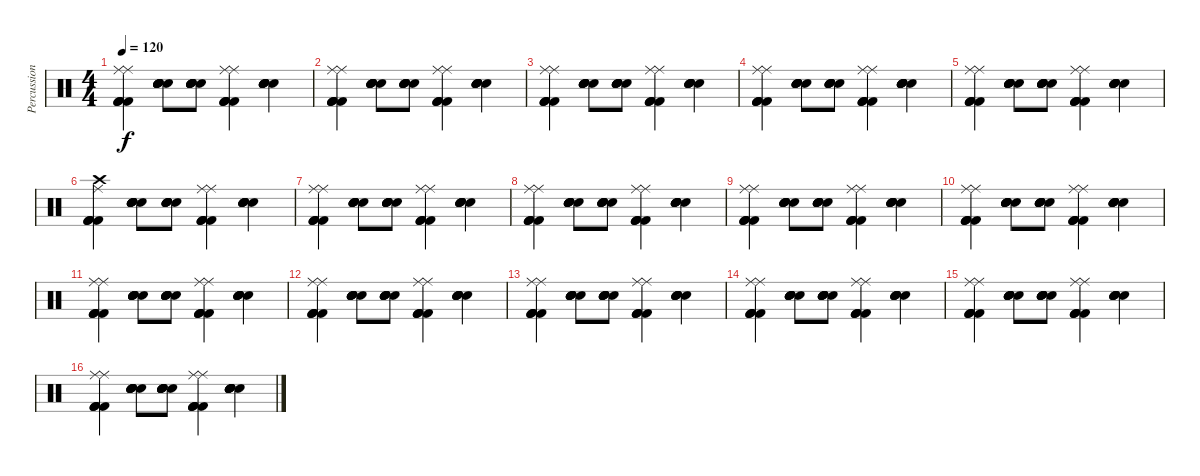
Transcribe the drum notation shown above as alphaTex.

\track ("Percussion" "Percussion") {instrument percussion}
\staff {score}
\articulation defaults
\ts (4 4)
\tempo 120
\clef neutral
\ks c
("Ride (middle)" "Kick (hit) 2" "Kick (hit) 2" "Kick (hit) 2" "Kick (hit) 2" "Ride (middle)").4{dy f} ("Electric Snare (hit)" "Electric Snare (hit)" "Electric Snare (hit)" "Electric Snare (hit)" "Electric Snare (hit)" "Electric Snare (hit)").8 ("Electric Snare (hit)" "Electric Snare (hit)" "Electric Snare (hit)" "Electric Snare (hit)" "Electric Snare (hit)" "Electric Snare (hit)").8 ("Ride (middle)" "Kick (hit) 2" "Kick (hit) 2" "Kick (hit) 2" "Kick (hit) 2" "Ride (middle)").4 ("Electric Snare (hit)" "Electric Snare (hit)" "Electric Snare (hit)" "Electric Snare (hit)" "Electric Snare (hit)" "Electric Snare (hit)").4 |
("Ride (middle)" "Kick (hit) 2" "Kick (hit) 2" "Kick (hit) 2" "Kick (hit) 2" "Ride (middle)").4 ("Electric Snare (hit)" "Electric Snare (hit)" "Electric Snare (hit)" "Electric Snare (hit)" "Electric Snare (hit)" "Electric Snare (hit)").8 ("Electric Snare (hit)" "Electric Snare (hit)" "Electric Snare (hit)" "Electric Snare (hit)" "Electric Snare (hit)" "Electric Snare (hit)").8 ("Ride (middle)" "Kick (hit) 2" "Kick (hit) 2" "Kick (hit) 2" "Kick (hit) 2" "Ride (middle)").4 ("Electric Snare (hit)" "Electric Snare (hit)" "Electric Snare (hit)" "Electric Snare (hit)" "Electric Snare (hit)" "Electric Snare (hit)").4 |
("Ride (middle)" "Kick (hit) 2" "Kick (hit) 2" "Kick (hit) 2" "Kick (hit) 2" "Ride (middle)").4 ("Electric Snare (hit)" "Electric Snare (hit)" "Electric Snare (hit)" "Electric Snare (hit)" "Electric Snare (hit)" "Electric Snare (hit)").8 ("Electric Snare (hit)" "Electric Snare (hit)" "Electric Snare (hit)" "Electric Snare (hit)" "Electric Snare (hit)" "Electric Snare (hit)").8 ("Ride (middle)" "Kick (hit) 2" "Kick (hit) 2" "Kick (hit) 2" "Kick (hit) 2" "Ride (middle)").4 ("Electric Snare (hit)" "Electric Snare (hit)" "Electric Snare (hit)" "Electric Snare (hit)" "Electric Snare (hit)" "Electric Snare (hit)").4 |
("Ride (middle)" "Kick (hit) 2" "Kick (hit) 2" "Kick (hit) 2" "Kick (hit) 2" "Ride (middle)").4 ("Electric Snare (hit)" "Electric Snare (hit)" "Electric Snare (hit)" "Electric Snare (hit)" "Electric Snare (hit)" "Electric Snare (hit)").8 ("Electric Snare (hit)" "Electric Snare (hit)" "Electric Snare (hit)" "Electric Snare (hit)" "Electric Snare (hit)" "Electric Snare (hit)").8 ("Ride (middle)" "Kick (hit) 2" "Kick (hit) 2" "Kick (hit) 2" "Kick (hit) 2" "Ride (middle)").4 ("Electric Snare (hit)" "Electric Snare (hit)" "Electric Snare (hit)" "Electric Snare (hit)" "Electric Snare (hit)" "Electric Snare (hit)").4 |
("Ride (middle)" "Kick (hit) 2" "Kick (hit) 2" "Kick (hit) 2" "Kick (hit) 2" "Ride (middle)").4 ("Electric Snare (hit)" "Electric Snare (hit)" "Electric Snare (hit)" "Electric Snare (hit)" "Electric Snare (hit)" "Electric Snare (hit)").8 ("Electric Snare (hit)" "Electric Snare (hit)" "Electric Snare (hit)" "Electric Snare (hit)" "Electric Snare (hit)" "Electric Snare (hit)").8 ("Ride (middle)" "Kick (hit) 2" "Kick (hit) 2" "Kick (hit) 2" "Kick (hit) 2" "Ride (middle)").4 ("Snare (hit) 2" "Snare (hit) 2" "Snare (hit) 2" "Snare (hit) 2" "Snare (hit) 2" "Snare (hit) 2").4 |
("Crash high (hit)" "Kick (hit) 2" "Kick (hit) 2" "Kick (hit) 2" "Kick (hit) 2" "Ride (middle)").4 ("Electric Snare (hit)" "Electric Snare (hit)" "Electric Snare (hit)" "Electric Snare (hit)" "Electric Snare (hit)" "Electric Snare (hit)").8 ("Electric Snare (hit)" "Electric Snare (hit)" "Electric Snare (hit)" "Electric Snare (hit)" "Electric Snare (hit)" "Electric Snare (hit)").8 ("Ride (middle)" "Kick (hit) 2" "Kick (hit) 2" "Kick (hit) 2" "Kick (hit) 2" "Ride (middle)").4 ("Electric Snare (hit)" "Electric Snare (hit)" "Electric Snare (hit)" "Electric Snare (hit)" "Electric Snare (hit)" "Electric Snare (hit)").4 |
("Ride (middle)" "Kick (hit) 2" "Kick (hit) 2" "Kick (hit) 2" "Kick (hit) 2" "Ride (middle)").4 ("Electric Snare (hit)" "Electric Snare (hit)" "Electric Snare (hit)" "Electric Snare (hit)" "Electric Snare (hit)" "Electric Snare (hit)").8 ("Electric Snare (hit)" "Electric Snare (hit)" "Electric Snare (hit)" "Electric Snare (hit)" "Electric Snare (hit)" "Electric Snare (hit)").8 ("Ride (middle)" "Kick (hit) 2" "Kick (hit) 2" "Kick (hit) 2" "Kick (hit) 2" "Ride (middle)").4 ("Electric Snare (hit)" "Electric Snare (hit)" "Electric Snare (hit)" "Electric Snare (hit)" "Electric Snare (hit)" "Electric Snare (hit)").4 |
("Ride (middle)" "Kick (hit) 2" "Kick (hit) 2" "Kick (hit) 2" "Kick (hit) 2" "Ride (middle)").4 ("Electric Snare (hit)" "Electric Snare (hit)" "Electric Snare (hit)" "Electric Snare (hit)" "Electric Snare (hit)" "Electric Snare (hit)").8 ("Electric Snare (hit)" "Electric Snare (hit)" "Electric Snare (hit)" "Electric Snare (hit)" "Electric Snare (hit)" "Electric Snare (hit)").8 ("Ride (middle)" "Kick (hit) 2" "Kick (hit) 2" "Kick (hit) 2" "Kick (hit) 2" "Ride (middle)").4 ("Electric Snare (hit)" "Electric Snare (hit)" "Electric Snare (hit)" "Electric Snare (hit)" "Electric Snare (hit)" "Electric Snare (hit)").4 |
("Ride (middle)" "Kick (hit) 2" "Kick (hit) 2" "Kick (hit) 2" "Kick (hit) 2" "Ride (middle)").4 ("Electric Snare (hit)" "Electric Snare (hit)" "Electric Snare (hit)" "Electric Snare (hit)" "Electric Snare (hit)" "Electric Snare (hit)").8 ("Electric Snare (hit)" "Electric Snare (hit)" "Electric Snare (hit)" "Electric Snare (hit)" "Electric Snare (hit)" "Electric Snare (hit)").8 ("Ride (middle)" "Kick (hit) 2" "Kick (hit) 2" "Kick (hit) 2" "Kick (hit) 2" "Ride (middle)").4 ("Electric Snare (hit)" "Electric Snare (hit)" "Electric Snare (hit)" "Electric Snare (hit)" "Electric Snare (hit)" "Electric Snare (hit)").4 |
("Ride (middle)" "Kick (hit) 2" "Kick (hit) 2" "Kick (hit) 2" "Kick (hit) 2" "Ride (middle)").4 ("Electric Snare (hit)" "Electric Snare (hit)" "Electric Snare (hit)" "Electric Snare (hit)" "Electric Snare (hit)" "Electric Snare (hit)").8 ("Electric Snare (hit)" "Electric Snare (hit)" "Electric Snare (hit)" "Electric Snare (hit)" "Electric Snare (hit)" "Electric Snare (hit)").8 ("Ride (middle)" "Kick (hit) 2" "Kick (hit) 2" "Kick (hit) 2" "Kick (hit) 2" "Ride (middle)").4 ("Electric Snare (hit)" "Electric Snare (hit)" "Electric Snare (hit)" "Electric Snare (hit)" "Electric Snare (hit)" "Electric Snare (hit)").4 |
("Ride (middle)" "Kick (hit) 2" "Kick (hit) 2" "Kick (hit) 2" "Kick (hit) 2" "Ride (middle)").4 ("Electric Snare (hit)" "Electric Snare (hit)" "Electric Snare (hit)" "Electric Snare (hit)" "Electric Snare (hit)" "Electric Snare (hit)").8 ("Electric Snare (hit)" "Electric Snare (hit)" "Electric Snare (hit)" "Electric Snare (hit)" "Electric Snare (hit)" "Electric Snare (hit)").8 ("Ride (middle)" "Kick (hit) 2" "Kick (hit) 2" "Kick (hit) 2" "Kick (hit) 2" "Ride (middle)").4 ("Electric Snare (hit)" "Electric Snare (hit)" "Electric Snare (hit)" "Electric Snare (hit)" "Electric Snare (hit)" "Electric Snare (hit)").4 |
("Ride (middle)" "Kick (hit) 2" "Kick (hit) 2" "Kick (hit) 2" "Kick (hit) 2" "Ride (middle)").4 ("Electric Snare (hit)" "Electric Snare (hit)" "Electric Snare (hit)" "Electric Snare (hit)" "Electric Snare (hit)" "Electric Snare (hit)").8 ("Electric Snare (hit)" "Electric Snare (hit)" "Electric Snare (hit)" "Electric Snare (hit)" "Electric Snare (hit)" "Electric Snare (hit)").8 ("Ride (middle)" "Kick (hit) 2" "Kick (hit) 2" "Kick (hit) 2" "Kick (hit) 2" "Ride (middle)").4 ("Electric Snare (hit)" "Electric Snare (hit)" "Electric Snare (hit)" "Electric Snare (hit)" "Electric Snare (hit)" "Electric Snare (hit)").4 |
("Ride (middle)" "Kick (hit) 2" "Kick (hit) 2" "Kick (hit) 2" "Kick (hit) 2" "Ride (middle)").4 ("Electric Snare (hit)" "Electric Snare (hit)" "Electric Snare (hit)" "Electric Snare (hit)" "Electric Snare (hit)" "Electric Snare (hit)").8 ("Electric Snare (hit)" "Electric Snare (hit)" "Electric Snare (hit)" "Electric Snare (hit)" "Electric Snare (hit)" "Electric Snare (hit)").8 ("Ride (middle)" "Kick (hit) 2" "Kick (hit) 2" "Kick (hit) 2" "Kick (hit) 2" "Ride (middle)").4 ("Electric Snare (hit)" "Electric Snare (hit)" "Electric Snare (hit)" "Electric Snare (hit)" "Electric Snare (hit)" "Electric Snare (hit)").4 |
("Ride (middle)" "Kick (hit) 2" "Kick (hit) 2" "Kick (hit) 2" "Kick (hit) 2" "Ride (middle)").4 ("Electric Snare (hit)" "Electric Snare (hit)" "Electric Snare (hit)" "Electric Snare (hit)" "Electric Snare (hit)" "Electric Snare (hit)").8 ("Electric Snare (hit)" "Electric Snare (hit)" "Electric Snare (hit)" "Electric Snare (hit)" "Electric Snare (hit)" "Electric Snare (hit)").8 ("Ride (middle)" "Kick (hit) 2" "Kick (hit) 2" "Kick (hit) 2" "Kick (hit) 2" "Ride (middle)").4 ("Electric Snare (hit)" "Electric Snare (hit)" "Electric Snare (hit)" "Electric Snare (hit)" "Electric Snare (hit)" "Electric Snare (hit)").4 |
("Ride (middle)" "Kick (hit) 2" "Kick (hit) 2" "Kick (hit) 2" "Kick (hit) 2" "Ride (middle)").4 ("Electric Snare (hit)" "Electric Snare (hit)" "Electric Snare (hit)" "Electric Snare (hit)" "Electric Snare (hit)" "Electric Snare (hit)").8 ("Electric Snare (hit)" "Electric Snare (hit)" "Electric Snare (hit)" "Electric Snare (hit)" "Electric Snare (hit)" "Electric Snare (hit)").8 ("Ride (middle)" "Kick (hit) 2" "Kick (hit) 2" "Kick (hit) 2" "Kick (hit) 2" "Ride (middle)").4 ("Electric Snare (hit)" "Electric Snare (hit)" "Electric Snare (hit)" "Electric Snare (hit)" "Electric Snare (hit)" "Electric Snare (hit)").4 |
("Ride (middle)" "Kick (hit) 2" "Kick (hit) 2" "Kick (hit) 2" "Kick (hit) 2" "Ride (middle)").4 ("Electric Snare (hit)" "Electric Snare (hit)" "Electric Snare (hit)" "Electric Snare (hit)" "Electric Snare (hit)" "Electric Snare (hit)").8 ("Electric Snare (hit)" "Electric Snare (hit)" "Electric Snare (hit)" "Electric Snare (hit)" "Electric Snare (hit)" "Electric Snare (hit)").8 ("Ride (middle)" "Kick (hit) 2" "Kick (hit) 2" "Kick (hit) 2" "Kick (hit) 2" "Ride (middle)").4 ("Electric Snare (hit)" "Electric Snare (hit)" "Electric Snare (hit)" "Electric Snare (hit)" "Electric Snare (hit)" "Electric Snare (hit)").4
